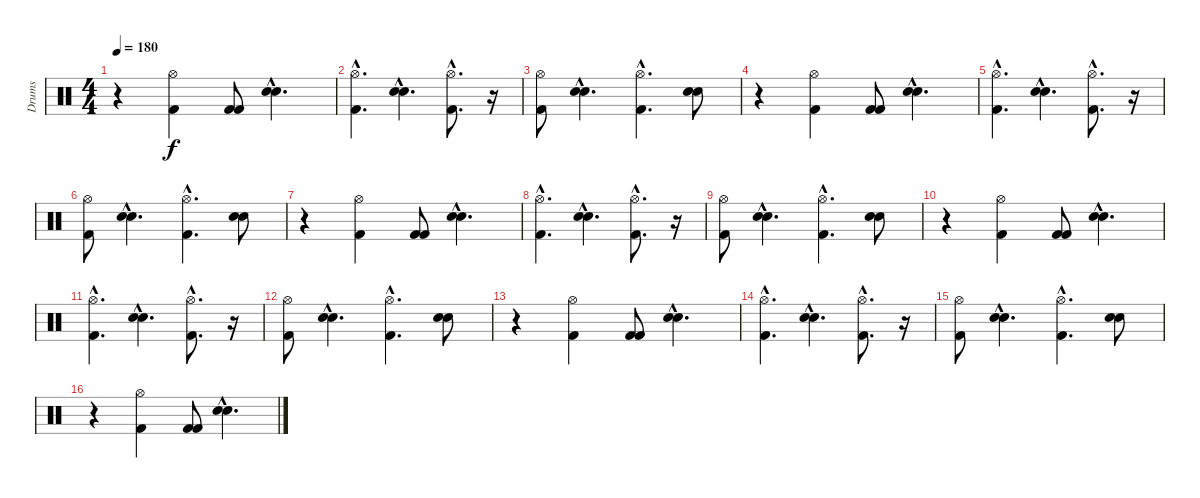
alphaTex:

\track ("Drums" "Drums") {instrument percussion}
\staff {score}
\articulation defaults
\ts (4 4)
\tempo 180
\clef neutral
\ks c
r.4{dy f} ("Kick (hit) 2" "Hi-Hat (open)").4 ("Kick (hit) 2" "Kick (hit) 2").8 ("Electric Snare (hit)"{hac} "Snare (hit) 2"{hac}).4{d} |
("Hi-Hat (open)"{hac} "Kick (hit) 2"{hac}).4{d} ("Snare (hit) 2"{hac} "Electric Snare (hit)"{hac}).4{d} ("Hi-Hat (open)"{hac} "Kick (hit) 2"{hac}).8{d} r.16 |
("Hi-Hat (open)" "Kick (hit) 2").8 ("Snare (hit) 2"{hac} "Electric Snare (hit)"{hac}).4{d} ("Hi-Hat (open)"{hac} "Kick (hit) 2"{hac}).4{d} ("Snare (hit) 2" "Electric Snare (hit)").8 |
r.4 ("Kick (hit) 2" "Hi-Hat (open)").4 ("Kick (hit) 2" "Kick (hit) 2").8 ("Electric Snare (hit)"{hac} "Snare (hit) 2"{hac}).4{d} |
("Hi-Hat (open)"{hac} "Kick (hit) 2"{hac}).4{d} ("Snare (hit) 2"{hac} "Electric Snare (hit)"{hac}).4{d} ("Hi-Hat (open)"{hac} "Kick (hit) 2"{hac}).8{d} r.16 |
("Hi-Hat (open)" "Kick (hit) 2").8 ("Snare (hit) 2"{hac} "Electric Snare (hit)"{hac}).4{d} ("Hi-Hat (open)"{hac} "Kick (hit) 2"{hac}).4{d} ("Snare (hit) 2" "Electric Snare (hit)").8 |
r.4 ("Kick (hit) 2" "Hi-Hat (open)").4 ("Kick (hit) 2" "Kick (hit) 2").8 ("Electric Snare (hit)"{hac} "Snare (hit) 2"{hac}).4{d} |
("Hi-Hat (open)"{hac} "Kick (hit) 2"{hac}).4{d} ("Snare (hit) 2"{hac} "Electric Snare (hit)"{hac}).4{d} ("Hi-Hat (open)"{hac} "Kick (hit) 2"{hac}).8{d} r.16 |
("Hi-Hat (open)" "Kick (hit) 2").8 ("Snare (hit) 2"{hac} "Electric Snare (hit)"{hac}).4{d} ("Hi-Hat (open)"{hac} "Kick (hit) 2"{hac}).4{d} ("Snare (hit) 2" "Electric Snare (hit)").8 |
r.4 ("Kick (hit) 2" "Hi-Hat (open)").4 ("Kick (hit) 2" "Kick (hit) 2").8 ("Electric Snare (hit)"{hac} "Snare (hit) 2"{hac}).4{d} |
("Hi-Hat (open)"{hac} "Kick (hit) 2"{hac}).4{d} ("Snare (hit) 2"{hac} "Electric Snare (hit)"{hac}).4{d} ("Hi-Hat (open)"{hac} "Kick (hit) 2"{hac}).8{d} r.16 |
("Hi-Hat (open)" "Kick (hit) 2").8 ("Snare (hit) 2"{hac} "Electric Snare (hit)"{hac}).4{d} ("Hi-Hat (open)"{hac} "Kick (hit) 2"{hac}).4{d} ("Snare (hit) 2" "Electric Snare (hit)").8 |
r.4 ("Kick (hit) 2" "Hi-Hat (open)").4 ("Kick (hit) 2" "Kick (hit) 2").8 ("Electric Snare (hit)"{hac} "Snare (hit) 2"{hac}).4{d} |
("Hi-Hat (open)"{hac} "Kick (hit) 2"{hac}).4{d} ("Snare (hit) 2"{hac} "Electric Snare (hit)"{hac}).4{d} ("Hi-Hat (open)"{hac} "Kick (hit) 2"{hac}).8{d} r.16 |
("Hi-Hat (open)" "Kick (hit) 2").8 ("Snare (hit) 2"{hac} "Electric Snare (hit)"{hac}).4{d} ("Hi-Hat (open)"{hac} "Kick (hit) 2"{hac}).4{d} ("Snare (hit) 2" "Electric Snare (hit)").8 |
r.4 ("Kick (hit) 2" "Hi-Hat (open)").4 ("Kick (hit) 2" "Kick (hit) 2").8 ("Electric Snare (hit)"{hac} "Snare (hit) 2"{hac}).4{d}
